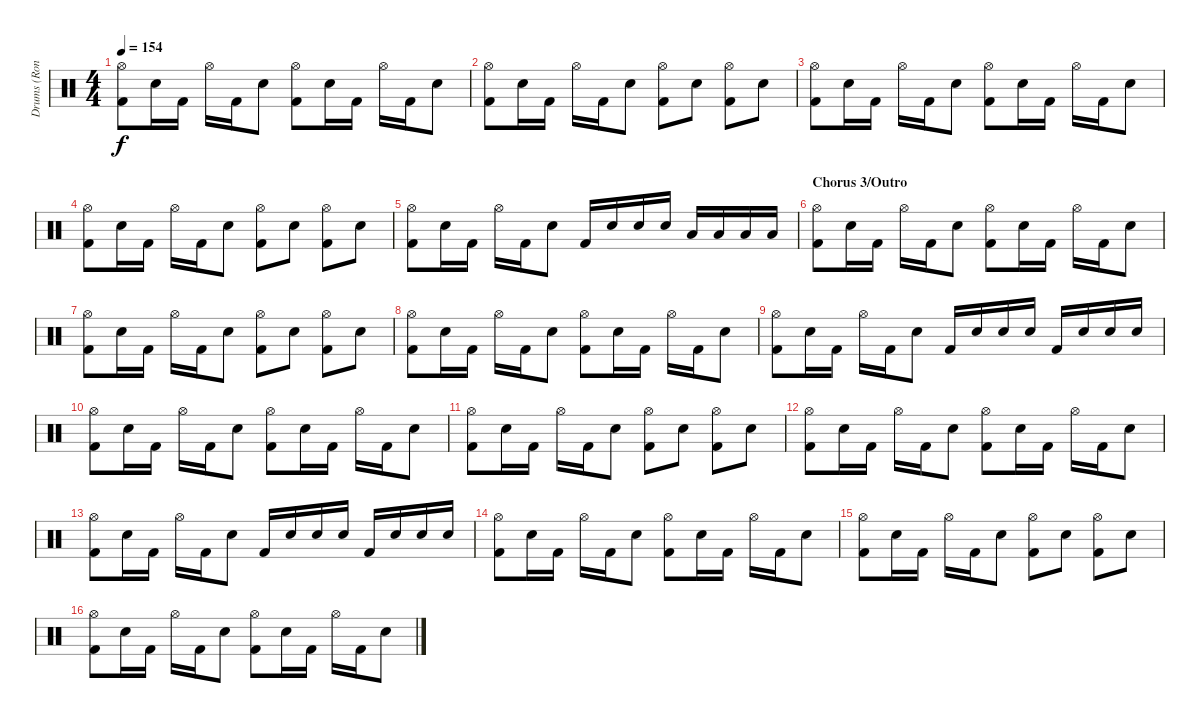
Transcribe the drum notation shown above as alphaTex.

\track ("Drums (Ron Welty)" "Drums (Ron") {instrument percussion}
\staff {score}
\articulation defaults
\ts (4 4)
\tempo 154
\clef neutral
\ks c
("Hi-Hat (open)" "Kick (hit) 2").8{dy f} "Electric Snare (hit)".16 "Kick (hit) 2".16 "Hi-Hat (open)".16 "Kick (hit) 2".16 "Electric Snare (hit)".8 ("Hi-Hat (open)" "Kick (hit) 2").8 "Electric Snare (hit)".16 "Kick (hit) 2".16 "Hi-Hat (open)".16 "Kick (hit) 2".16 "Electric Snare (hit)".8 |
("Hi-Hat (open)" "Kick (hit) 2").8 "Electric Snare (hit)".16 "Kick (hit) 2".16 "Hi-Hat (open)".16 "Kick (hit) 2".16 "Electric Snare (hit)".8 ("Hi-Hat (open)" "Kick (hit) 2").8 "Electric Snare (hit)".8 ("Hi-Hat (open)" "Kick (hit) 2").8 "Electric Snare (hit)".8 |
("Hi-Hat (open)" "Kick (hit) 2").8 "Electric Snare (hit)".16 "Kick (hit) 2".16 "Hi-Hat (open)".16 "Kick (hit) 2".16 "Electric Snare (hit)".8 ("Hi-Hat (open)" "Kick (hit) 2").8 "Electric Snare (hit)".16 "Kick (hit) 2".16 "Hi-Hat (open)".16 "Kick (hit) 2".16 "Electric Snare (hit)".8 |
("Hi-Hat (open)" "Kick (hit) 2").8 "Electric Snare (hit)".16 "Kick (hit) 2".16 "Hi-Hat (open)".16 "Kick (hit) 2".16 "Electric Snare (hit)".8 ("Hi-Hat (open)" "Kick (hit) 2").8 "Electric Snare (hit)".8 ("Hi-Hat (open)" "Kick (hit) 2").8 "Electric Snare (hit)".8 |
("Hi-Hat (open)" "Kick (hit) 2").8 "Electric Snare (hit)".16 "Kick (hit) 2".16 "Hi-Hat (open)".16 "Kick (hit) 2".16 "Electric Snare (hit)".8 "Kick (hit) 2".16 "Electric Snare (hit)".16 "Electric Snare (hit)".16 "Electric Snare (hit)".16 "Low Tom (hit)".16 "Low Tom (hit)".16 "Low Floor Tom (hit)".16 "Low Floor Tom (hit)".16 |
\section ("" "Chorus 3/Outro")
("Hi-Hat (open)" "Kick (hit) 2").8 "Electric Snare (hit)".16 "Kick (hit) 2".16 "Hi-Hat (open)".16 "Kick (hit) 2".16 "Electric Snare (hit)".8 ("Hi-Hat (open)" "Kick (hit) 2").8 "Electric Snare (hit)".16 "Kick (hit) 2".16 "Hi-Hat (open)".16 "Kick (hit) 2".16 "Electric Snare (hit)".8 |
("Hi-Hat (open)" "Kick (hit) 2").8 "Electric Snare (hit)".16 "Kick (hit) 2".16 "Hi-Hat (open)".16 "Kick (hit) 2".16 "Electric Snare (hit)".8 ("Hi-Hat (open)" "Kick (hit) 2").8 "Electric Snare (hit)".8 ("Hi-Hat (open)" "Kick (hit) 2").8 "Electric Snare (hit)".8 |
("Hi-Hat (open)" "Kick (hit) 2").8 "Electric Snare (hit)".16 "Kick (hit) 2".16 "Hi-Hat (open)".16 "Kick (hit) 2".16 "Electric Snare (hit)".8 ("Hi-Hat (open)" "Kick (hit) 2").8 "Electric Snare (hit)".16 "Kick (hit) 2".16 "Hi-Hat (open)".16 "Kick (hit) 2".16 "Electric Snare (hit)".8 |
("Hi-Hat (open)" "Kick (hit) 2").8 "Electric Snare (hit)".16 "Kick (hit) 2".16 "Hi-Hat (open)".16 "Kick (hit) 2".16 "Electric Snare (hit)".8 "Kick (hit) 2".16 "Electric Snare (hit)".16 "Electric Snare (hit)".16 "Electric Snare (hit)".16 "Kick (hit) 2".16 "Electric Snare (hit)".16 "Electric Snare (hit)".16 "Electric Snare (hit)".16 |
("Hi-Hat (open)" "Kick (hit) 2").8 "Electric Snare (hit)".16 "Kick (hit) 2".16 "Hi-Hat (open)".16 "Kick (hit) 2".16 "Electric Snare (hit)".8 ("Hi-Hat (open)" "Kick (hit) 2").8 "Electric Snare (hit)".16 "Kick (hit) 2".16 "Hi-Hat (open)".16 "Kick (hit) 2".16 "Electric Snare (hit)".8 |
("Hi-Hat (open)" "Kick (hit) 2").8 "Electric Snare (hit)".16 "Kick (hit) 2".16 "Hi-Hat (open)".16 "Kick (hit) 2".16 "Electric Snare (hit)".8 ("Hi-Hat (open)" "Kick (hit) 2").8 "Electric Snare (hit)".8 ("Hi-Hat (open)" "Kick (hit) 2").8 "Electric Snare (hit)".8 |
("Hi-Hat (open)" "Kick (hit) 2").8 "Electric Snare (hit)".16 "Kick (hit) 2".16 "Hi-Hat (open)".16 "Kick (hit) 2".16 "Electric Snare (hit)".8 ("Hi-Hat (open)" "Kick (hit) 2").8 "Electric Snare (hit)".16 "Kick (hit) 2".16 "Hi-Hat (open)".16 "Kick (hit) 2".16 "Electric Snare (hit)".8 |
("Hi-Hat (open)" "Kick (hit) 2").8 "Electric Snare (hit)".16 "Kick (hit) 2".16 "Hi-Hat (open)".16 "Kick (hit) 2".16 "Electric Snare (hit)".8 "Kick (hit) 2".16 "Electric Snare (hit)".16 "Electric Snare (hit)".16 "Electric Snare (hit)".16 "Kick (hit) 2".16 "Electric Snare (hit)".16 "Electric Snare (hit)".16 "Electric Snare (hit)".16 |
("Hi-Hat (open)" "Kick (hit) 2").8 "Electric Snare (hit)".16 "Kick (hit) 2".16 "Hi-Hat (open)".16 "Kick (hit) 2".16 "Electric Snare (hit)".8 ("Hi-Hat (open)" "Kick (hit) 2").8 "Electric Snare (hit)".16 "Kick (hit) 2".16 "Hi-Hat (open)".16 "Kick (hit) 2".16 "Electric Snare (hit)".8 |
("Hi-Hat (open)" "Kick (hit) 2").8 "Electric Snare (hit)".16 "Kick (hit) 2".16 "Hi-Hat (open)".16 "Kick (hit) 2".16 "Electric Snare (hit)".8 ("Hi-Hat (open)" "Kick (hit) 2").8 "Electric Snare (hit)".8 ("Hi-Hat (open)" "Kick (hit) 2").8 "Electric Snare (hit)".8 |
("Hi-Hat (open)" "Kick (hit) 2").8 "Electric Snare (hit)".16 "Kick (hit) 2".16 "Hi-Hat (open)".16 "Kick (hit) 2".16 "Electric Snare (hit)".8 ("Hi-Hat (open)" "Kick (hit) 2").8 "Electric Snare (hit)".16 "Kick (hit) 2".16 "Hi-Hat (open)".16 "Kick (hit) 2".16 "Electric Snare (hit)".8
